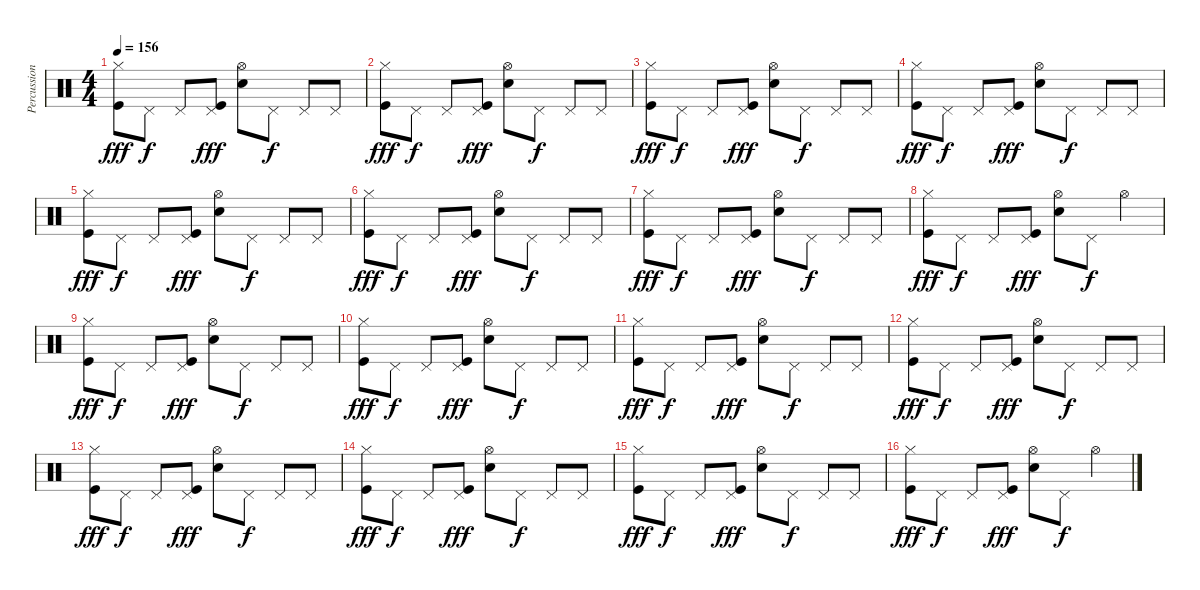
\track ("Percussion" "Percussion") {instrument percussion}
\staff {score}
\articulation defaults
\ts (4 4)
\tempo 156
\clef neutral
\ks c
("Hi-Hat (closed)" "Kick (hit)").8{dy fff} "Pedal Hi-Hat (hit)".8{dy f} "Pedal Hi-Hat (hit)".8 ("Pedal Hi-Hat (hit)" "Kick (hit)").8{dy fff} ("Hi-Hat (open)" "Snare (hit) 2").8 "Pedal Hi-Hat (hit)".8{dy f} "Pedal Hi-Hat (hit)".8 "Pedal Hi-Hat (hit)".8 |
("Hi-Hat (closed)" "Kick (hit)").8{dy fff} "Pedal Hi-Hat (hit)".8{dy f} "Pedal Hi-Hat (hit)".8 ("Pedal Hi-Hat (hit)" "Kick (hit)").8{dy fff} ("Hi-Hat (open)" "Snare (hit) 2").8 "Pedal Hi-Hat (hit)".8{dy f} "Pedal Hi-Hat (hit)".8 "Pedal Hi-Hat (hit)".8 |
("Hi-Hat (closed)" "Kick (hit)").8{dy fff} "Pedal Hi-Hat (hit)".8{dy f} "Pedal Hi-Hat (hit)".8 ("Pedal Hi-Hat (hit)" "Kick (hit)").8{dy fff} ("Hi-Hat (open)" "Snare (hit) 2").8 "Pedal Hi-Hat (hit)".8{dy f} "Pedal Hi-Hat (hit)".8 "Pedal Hi-Hat (hit)".8 |
("Hi-Hat (closed)" "Kick (hit)").8{dy fff} "Pedal Hi-Hat (hit)".8{dy f} "Pedal Hi-Hat (hit)".8 ("Pedal Hi-Hat (hit)" "Kick (hit)").8{dy fff} ("Hi-Hat (open)" "Snare (hit) 2").8 "Pedal Hi-Hat (hit)".8{dy f} "Pedal Hi-Hat (hit)".8 "Pedal Hi-Hat (hit)".8 |
("Hi-Hat (closed)" "Kick (hit)").8{dy fff} "Pedal Hi-Hat (hit)".8{dy f} "Pedal Hi-Hat (hit)".8 ("Pedal Hi-Hat (hit)" "Kick (hit)").8{dy fff} ("Hi-Hat (open)" "Snare (hit) 2").8 "Pedal Hi-Hat (hit)".8{dy f} "Pedal Hi-Hat (hit)".8 "Pedal Hi-Hat (hit)".8 |
("Hi-Hat (closed)" "Kick (hit)").8{dy fff} "Pedal Hi-Hat (hit)".8{dy f} "Pedal Hi-Hat (hit)".8 ("Pedal Hi-Hat (hit)" "Kick (hit)").8{dy fff} ("Hi-Hat (open)" "Snare (hit) 2").8 "Pedal Hi-Hat (hit)".8{dy f} "Pedal Hi-Hat (hit)".8 "Pedal Hi-Hat (hit)".8 |
("Hi-Hat (closed)" "Kick (hit)").8{dy fff} "Pedal Hi-Hat (hit)".8{dy f} "Pedal Hi-Hat (hit)".8 ("Pedal Hi-Hat (hit)" "Kick (hit)").8{dy fff} ("Hi-Hat (open)" "Snare (hit) 2").8 "Pedal Hi-Hat (hit)".8{dy f} "Pedal Hi-Hat (hit)".8 "Pedal Hi-Hat (hit)".8 |
("Hi-Hat (closed)" "Kick (hit)").8{dy fff} "Pedal Hi-Hat (hit)".8{dy f} "Pedal Hi-Hat (hit)".8 ("Pedal Hi-Hat (hit)" "Kick (hit)").8{dy fff} ("Hi-Hat (open)" "Snare (hit) 2").8 "Pedal Hi-Hat (hit)".8{dy f} "Hi-Hat (open)".4 |
("Hi-Hat (closed)" "Kick (hit)").8{dy fff} "Pedal Hi-Hat (hit)".8{dy f} "Pedal Hi-Hat (hit)".8 ("Pedal Hi-Hat (hit)" "Kick (hit)").8{dy fff} ("Hi-Hat (open)" "Snare (hit) 2").8 "Pedal Hi-Hat (hit)".8{dy f} "Pedal Hi-Hat (hit)".8 "Pedal Hi-Hat (hit)".8 |
("Hi-Hat (closed)" "Kick (hit)").8{dy fff} "Pedal Hi-Hat (hit)".8{dy f} "Pedal Hi-Hat (hit)".8 ("Pedal Hi-Hat (hit)" "Kick (hit)").8{dy fff} ("Hi-Hat (open)" "Snare (hit) 2").8 "Pedal Hi-Hat (hit)".8{dy f} "Pedal Hi-Hat (hit)".8 "Pedal Hi-Hat (hit)".8 |
("Hi-Hat (closed)" "Kick (hit)").8{dy fff} "Pedal Hi-Hat (hit)".8{dy f} "Pedal Hi-Hat (hit)".8 ("Pedal Hi-Hat (hit)" "Kick (hit)").8{dy fff} ("Hi-Hat (open)" "Snare (hit) 2").8 "Pedal Hi-Hat (hit)".8{dy f} "Pedal Hi-Hat (hit)".8 "Pedal Hi-Hat (hit)".8 |
("Hi-Hat (closed)" "Kick (hit)").8{dy fff} "Pedal Hi-Hat (hit)".8{dy f} "Pedal Hi-Hat (hit)".8 ("Pedal Hi-Hat (hit)" "Kick (hit)").8{dy fff} ("Hi-Hat (open)" "Snare (hit) 2").8 "Pedal Hi-Hat (hit)".8{dy f} "Pedal Hi-Hat (hit)".8 "Pedal Hi-Hat (hit)".8 |
("Hi-Hat (closed)" "Kick (hit)").8{dy fff} "Pedal Hi-Hat (hit)".8{dy f} "Pedal Hi-Hat (hit)".8 ("Pedal Hi-Hat (hit)" "Kick (hit)").8{dy fff} ("Hi-Hat (open)" "Snare (hit) 2").8 "Pedal Hi-Hat (hit)".8{dy f} "Pedal Hi-Hat (hit)".8 "Pedal Hi-Hat (hit)".8 |
("Hi-Hat (closed)" "Kick (hit)").8{dy fff} "Pedal Hi-Hat (hit)".8{dy f} "Pedal Hi-Hat (hit)".8 ("Pedal Hi-Hat (hit)" "Kick (hit)").8{dy fff} ("Hi-Hat (open)" "Snare (hit) 2").8 "Pedal Hi-Hat (hit)".8{dy f} "Pedal Hi-Hat (hit)".8 "Pedal Hi-Hat (hit)".8 |
("Hi-Hat (closed)" "Kick (hit)").8{dy fff} "Pedal Hi-Hat (hit)".8{dy f} "Pedal Hi-Hat (hit)".8 ("Pedal Hi-Hat (hit)" "Kick (hit)").8{dy fff} ("Hi-Hat (open)" "Snare (hit) 2").8 "Pedal Hi-Hat (hit)".8{dy f} "Pedal Hi-Hat (hit)".8 "Pedal Hi-Hat (hit)".8 |
("Hi-Hat (closed)" "Kick (hit)").8{dy fff} "Pedal Hi-Hat (hit)".8{dy f} "Pedal Hi-Hat (hit)".8 ("Pedal Hi-Hat (hit)" "Kick (hit)").8{dy fff} ("Hi-Hat (open)" "Snare (hit) 2").8 "Pedal Hi-Hat (hit)".8{dy f} "Hi-Hat (open)".4
